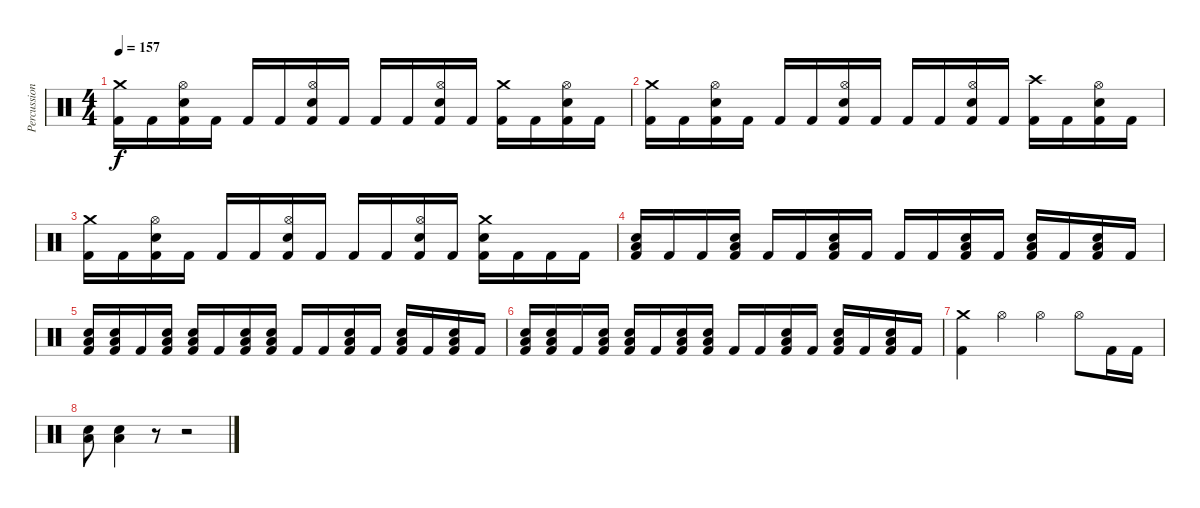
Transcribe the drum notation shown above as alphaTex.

\track ("Percussion" "Percussion") {instrument percussion}
\staff {score}
\articulation defaults
\ts (4 4)
\tempo 157
\clef neutral
\ks c
("Crash medium (hit)" "Kick (hit) 2").16{dy f} "Kick (hit) 2".16 ("Hi-Hat (open)" "Electric Snare (hit)" "Kick (hit) 2").16 "Kick (hit) 2".16 "Kick (hit) 2".16 "Kick (hit) 2".16 ("Hi-Hat (open)" "Electric Snare (hit)" "Kick (hit) 2").16 "Kick (hit) 2".16 "Kick (hit) 2".16 "Kick (hit) 2".16 ("Hi-Hat (open)" "Electric Snare (hit)" "Kick (hit) 2").16 "Kick (hit) 2".16 ("Crash medium (hit)" "Kick (hit) 2").16 "Kick (hit) 2".16 ("Hi-Hat (open)" "Electric Snare (hit)" "Kick (hit) 2").16 "Kick (hit) 2".16 |
("Crash medium (hit)" "Kick (hit) 2").16 "Kick (hit) 2".16 ("Hi-Hat (open)" "Electric Snare (hit)" "Kick (hit) 2").16 "Kick (hit) 2".16 "Kick (hit) 2".16 "Kick (hit) 2".16 ("Hi-Hat (open)" "Electric Snare (hit)" "Kick (hit) 2").16 "Kick (hit) 2".16 "Kick (hit) 2".16 "Kick (hit) 2".16 ("Hi-Hat (open)" "Electric Snare (hit)" "Kick (hit) 2").16 "Kick (hit) 2".16 ("Crash high (hit)" "Kick (hit) 2").16 "Kick (hit) 2".16 ("Hi-Hat (open)" "Electric Snare (hit)" "Kick (hit) 2").16 "Kick (hit) 2".16 |
("Crash medium (hit)" "Kick (hit) 2").16 "Kick (hit) 2".16 ("Hi-Hat (open)" "Electric Snare (hit)" "Kick (hit) 2").16 "Kick (hit) 2".16 "Kick (hit) 2".16 "Kick (hit) 2".16 ("Hi-Hat (open)" "Electric Snare (hit)" "Kick (hit) 2").16 "Kick (hit) 2".16 "Kick (hit) 2".16 "Kick (hit) 2".16 ("Hi-Hat (open)" "Electric Snare (hit)" "Kick (hit) 2").16 "Kick (hit) 2".16 ("Crash medium (hit)" "Electric Snare (hit)" "Kick (hit) 2").16 "Kick (hit) 2".16 "Kick (hit) 2".16 "Kick (hit) 2".16 |
("Low Floor Tom (hit)" "Electric Snare (hit)" "Kick (hit) 2").16 "Kick (hit) 2".16 "Kick (hit) 2".16 ("Low Floor Tom (hit)" "Electric Snare (hit)" "Kick (hit) 2").16 "Kick (hit) 2".16 "Kick (hit) 2".16 ("Low Floor Tom (hit)" "Electric Snare (hit)" "Kick (hit) 2").16 "Kick (hit) 2".16 "Kick (hit) 2".16 "Kick (hit) 2".16 ("Low Floor Tom (hit)" "Electric Snare (hit)" "Kick (hit) 2").16 "Kick (hit) 2".16 ("Low Floor Tom (hit)" "Electric Snare (hit)" "Kick (hit) 2").16 "Kick (hit) 2".16 ("Low Floor Tom (hit)" "Electric Snare (hit)" "Kick (hit) 2").16 "Kick (hit) 2".16 |
("Low Floor Tom (hit)" "Electric Snare (hit)" "Kick (hit) 2").16 ("Low Floor Tom (hit)" "Electric Snare (hit)" "Kick (hit) 2").16 "Kick (hit) 2".16 ("Low Floor Tom (hit)" "Electric Snare (hit)" "Kick (hit) 2").16 ("Low Floor Tom (hit)" "Electric Snare (hit)" "Kick (hit) 2").16 "Kick (hit) 2".16 ("Low Floor Tom (hit)" "Electric Snare (hit)" "Kick (hit) 2").16 ("Low Floor Tom (hit)" "Electric Snare (hit)" "Kick (hit) 2").16 "Kick (hit) 2".16 "Kick (hit) 2".16 ("Low Floor Tom (hit)" "Electric Snare (hit)" "Kick (hit) 2").16 "Kick (hit) 2".16 ("Low Floor Tom (hit)" "Electric Snare (hit)" "Kick (hit) 2").16 "Kick (hit) 2".16 ("Low Floor Tom (hit)" "Electric Snare (hit)" "Kick (hit) 2").16 "Kick (hit) 2".16 |
("Low Floor Tom (hit)" "Electric Snare (hit)" "Kick (hit) 2").16 ("Low Floor Tom (hit)" "Electric Snare (hit)" "Kick (hit) 2").16 "Kick (hit) 2".16 ("Low Floor Tom (hit)" "Electric Snare (hit)" "Kick (hit) 2").16 ("Low Floor Tom (hit)" "Electric Snare (hit)" "Kick (hit) 2").16 "Kick (hit) 2".16 ("Low Floor Tom (hit)" "Electric Snare (hit)" "Kick (hit) 2").16 ("Low Floor Tom (hit)" "Electric Snare (hit)" "Kick (hit) 2").16 "Kick (hit) 2".16 "Kick (hit) 2".16 ("Low Floor Tom (hit)" "Electric Snare (hit)" "Kick (hit) 2").16 "Kick (hit) 2".16 ("Low Floor Tom (hit)" "Electric Snare (hit)" "Kick (hit) 2").16 "Kick (hit) 2".16 ("Low Floor Tom (hit)" "Electric Snare (hit)" "Kick (hit) 2").16 "Kick (hit) 2".16 |
("Crash medium (hit)" "Kick (hit) 2").4 "Hi-Hat (open)".4 "Hi-Hat (open)".4 "Hi-Hat (open)".8 "Kick (hit) 2".16 "Kick (hit) 2".16 |
("Low Floor Tom (hit)" "Electric Snare (hit)").8 ("Low Floor Tom (hit)" "Electric Snare (hit)").4 r.8 r.2
